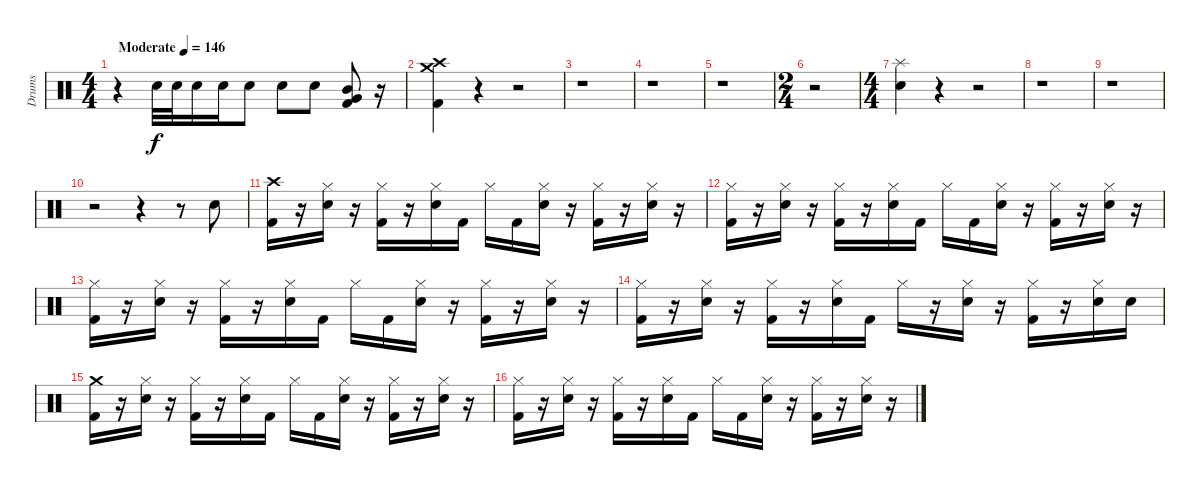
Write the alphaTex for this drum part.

\track ("Drums" "Drums") {instrument percussion}
\staff {score}
\articulation defaults
\ts (4 4)
\tempo (146 "Moderate")
\clef neutral
\ks c
r.4{dy f} "Snare (hit) 2".32 "Snare (hit) 2".32 "Snare (hit) 2".16 "Snare (hit) 2".16 "Snare (hit) 2".8 "Snare (hit) 2".8 "Snare (hit) 2".8 ("Mid Tom (hit)" "Very Low Tom (hit)" "Kick (hit) 2").8 r.16 |
("Crash high (hit)" "Crash medium (hit)" "Kick (hit) 2").4 r.4 r.2 |
r.1 |
r.1 |
r.1 |
\ts (2 4)
r.2 |
\ts (4 4)
("Splash (hit)" "Snare (hit) 2").4 r.4 r.2 |
r.1 |
r.1 |
r.2 r.4 r.8 "Snare (hit) 2".8 |
("Crash high (hit)" "Kick (hit) 2").16 r.16 ("Hi-Hat (closed)" "Snare (hit) 2").16 r.16 ("Hi-Hat (closed)" "Kick (hit) 2").16 r.16 ("Hi-Hat (closed)" "Snare (hit) 2").16 "Kick (hit) 2".16 "Hi-Hat (closed)".16 "Kick (hit) 2".16 ("Hi-Hat (closed)" "Snare (hit) 2").16 r.16 ("Hi-Hat (closed)" "Kick (hit) 2").16 r.16 ("Hi-Hat (closed)" "Snare (hit) 2").16 r.16 |
("Hi-Hat (closed)" "Kick (hit) 2").16 r.16 ("Hi-Hat (closed)" "Snare (hit) 2").16 r.16 ("Hi-Hat (closed)" "Kick (hit) 2").16 r.16 ("Hi-Hat (closed)" "Snare (hit) 2").16 "Kick (hit) 2".16 "Hi-Hat (closed)".16 "Kick (hit) 2".16 ("Hi-Hat (closed)" "Snare (hit) 2").16 r.16 ("Hi-Hat (closed)" "Kick (hit) 2").16 r.16 ("Hi-Hat (closed)" "Snare (hit) 2").16 r.16 |
("Hi-Hat (closed)" "Kick (hit) 2").16 r.16 ("Hi-Hat (closed)" "Snare (hit) 2").16 r.16 ("Hi-Hat (closed)" "Kick (hit) 2").16 r.16 ("Hi-Hat (closed)" "Snare (hit) 2").16 "Kick (hit) 2".16 "Hi-Hat (closed)".16 "Kick (hit) 2".16 ("Hi-Hat (closed)" "Snare (hit) 2").16 r.16 ("Hi-Hat (closed)" "Kick (hit) 2").16 r.16 ("Hi-Hat (closed)" "Snare (hit) 2").16 r.16 |
("Hi-Hat (closed)" "Kick (hit) 2").16 r.16 ("Hi-Hat (closed)" "Snare (hit) 2").16 r.16 ("Hi-Hat (closed)" "Kick (hit) 2").16 r.16 ("Hi-Hat (closed)" "Snare (hit) 2").16 "Kick (hit) 2".16 "Hi-Hat (closed)".16 r.16 ("Hi-Hat (closed)" "Snare (hit) 2").16 r.16 ("Hi-Hat (closed)" "Kick (hit) 2").16 r.16 ("Hi-Hat (closed)" "Snare (hit) 2").16 "Snare (hit) 2".16 |
("Crash medium (hit)" "Kick (hit) 2").16 r.16 ("Hi-Hat (closed)" "Snare (hit) 2").16 r.16 ("Hi-Hat (closed)" "Kick (hit) 2").16 r.16 ("Hi-Hat (closed)" "Snare (hit) 2").16 "Kick (hit) 2".16 "Hi-Hat (closed)".16 "Kick (hit) 2".16 ("Hi-Hat (closed)" "Snare (hit) 2").16 r.16 ("Hi-Hat (closed)" "Kick (hit) 2").16 r.16 ("Hi-Hat (closed)" "Snare (hit) 2").16 r.16 |
("Hi-Hat (closed)" "Kick (hit) 2").16 r.16 ("Hi-Hat (closed)" "Snare (hit) 2").16 r.16 ("Hi-Hat (closed)" "Kick (hit) 2").16 r.16 ("Hi-Hat (closed)" "Snare (hit) 2").16 "Kick (hit) 2".16 "Hi-Hat (closed)".16 "Kick (hit) 2".16 ("Hi-Hat (closed)" "Snare (hit) 2").16 r.16 ("Hi-Hat (closed)" "Kick (hit) 2").16 r.16 ("Hi-Hat (closed)" "Snare (hit) 2").16 r.16
